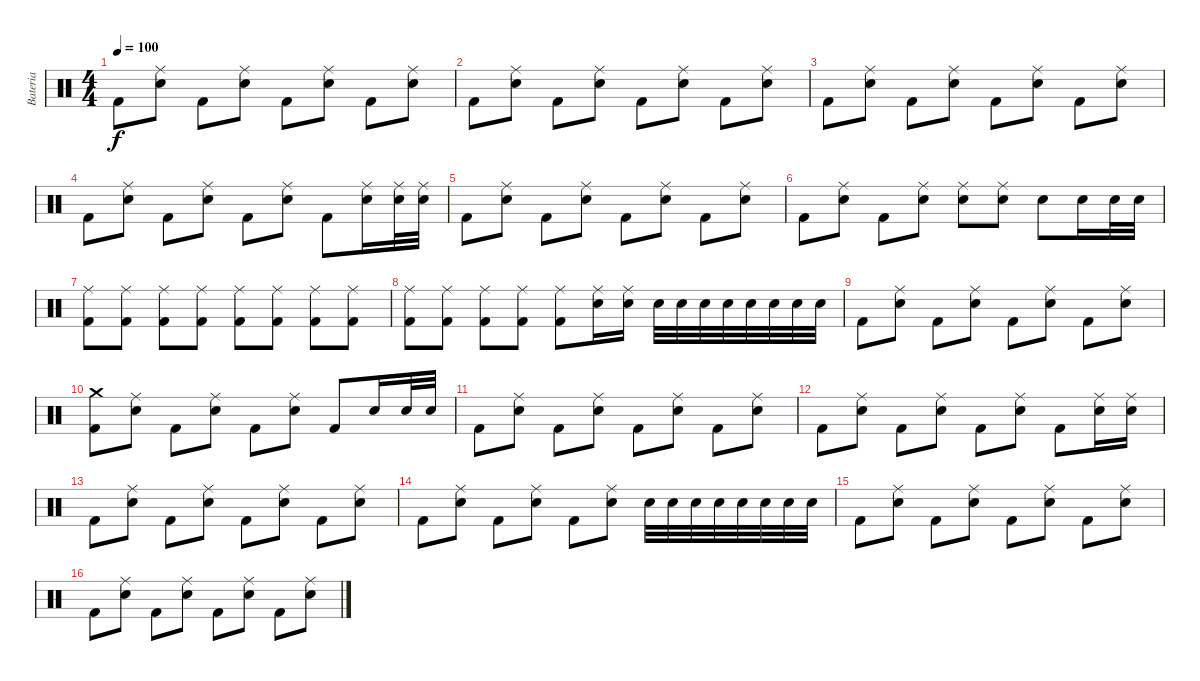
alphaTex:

\track ("Bateria" "Bateria") {instrument percussion}
\staff {score}
\articulation defaults
\ts (4 4)
\tempo 100
\clef neutral
\ks c "Kick (hit) 2".8{dy f}
("Ride (middle)" "Snare (hit) 2").8 "Kick (hit) 2".8 ("Ride (middle)" "Snare (hit) 2").8 "Kick (hit) 2".8 ("Ride (middle)" "Snare (hit) 2").8 "Kick (hit) 2".8 ("Ride (middle)" "Snare (hit) 2").8 |
"Kick (hit) 2".8 ("Ride (middle)" "Snare (hit) 2").8 "Kick (hit) 2".8 ("Ride (middle)" "Snare (hit) 2").8 "Kick (hit) 2".8 ("Ride (middle)" "Snare (hit) 2").8 "Kick (hit) 2".8 ("Ride (middle)" "Snare (hit) 2").8 |
"Kick (hit) 2".8 ("Ride (middle)" "Snare (hit) 2").8 "Kick (hit) 2".8 ("Ride (middle)" "Snare (hit) 2").8 "Kick (hit) 2".8 ("Ride (middle)" "Snare (hit) 2").8 "Kick (hit) 2".8 ("Ride (middle)" "Snare (hit) 2").8 |
"Kick (hit) 2".8 ("Ride (middle)" "Snare (hit) 2").8 "Kick (hit) 2".8 ("Ride (middle)" "Snare (hit) 2").8 "Kick (hit) 2".8 ("Ride (middle)" "Snare (hit) 2").8 "Kick (hit) 2".8 ("Ride (middle)" "Snare (hit) 2").16 ("Ride (middle)" "Snare (hit) 2").32 ("Ride (middle)" "Snare (hit) 2").32 |
"Kick (hit) 2".8 ("Ride (middle)" "Snare (hit) 2").8 "Kick (hit) 2".8 ("Ride (middle)" "Snare (hit) 2").8 "Kick (hit) 2".8 ("Ride (middle)" "Snare (hit) 2").8 "Kick (hit) 2".8 ("Ride (middle)" "Snare (hit) 2").8 |
"Kick (hit) 2".8 ("Ride (middle)" "Snare (hit) 2").8 "Kick (hit) 2".8 ("Ride (middle)" "Snare (hit) 2").8 ("Ride (middle)" "Snare (hit) 2").8 ("Ride (middle)" "Snare (hit) 2").8 "Snare (hit) 2".8 "Snare (hit) 2".16 "Snare (hit) 2".32 "Snare (hit) 2".32 |
("Kick (hit) 2" "Ride (middle)").8 ("Kick (hit) 2" "Ride (middle)").8 ("Kick (hit) 2" "Ride (middle)").8 ("Kick (hit) 2" "Ride (middle)").8 ("Kick (hit) 2" "Ride (middle)").8 ("Kick (hit) 2" "Ride (middle)").8 ("Kick (hit) 2" "Ride (middle)").8 ("Kick (hit) 2" "Ride (middle)").8 |
("Ride (middle)" "Kick (hit) 2").8 ("Ride (middle)" "Kick (hit) 2").8 ("Ride (middle)" "Kick (hit) 2").8 ("Ride (middle)" "Kick (hit) 2").8 ("Kick (hit) 2" "Ride (middle)").8 ("Ride (middle)" "Snare (hit) 2").16 ("Ride (middle)" "Snare (hit) 2").16 "Snare (hit) 2".32 "Snare (hit) 2".32 "Snare (hit) 2".32 "Snare (hit) 2".32 "Snare (hit) 2".32 "Snare (hit) 2".32 "Snare (hit) 2".32 "Snare (hit) 2".32 |
"Kick (hit) 2".8 ("Ride (middle)" "Snare (hit) 2").8 "Kick (hit) 2".8 ("Ride (middle)" "Snare (hit) 2").8 "Kick (hit) 2".8 ("Ride (middle)" "Snare (hit) 2").8 "Kick (hit) 2".8 ("Ride (middle)" "Snare (hit) 2").8 |
("Crash medium (hit)" "Kick (hit) 2").8 ("Ride (middle)" "Snare (hit) 2").8 "Kick (hit) 2".8 ("Ride (middle)" "Snare (hit) 2").8 "Kick (hit) 2".8 ("Ride (middle)" "Snare (hit) 2").8 "Kick (hit) 2".8 "Snare (hit) 2".16 "Snare (hit) 2".32 "Snare (hit) 2".32 |
"Kick (hit) 2".8 ("Ride (middle)" "Snare (hit) 2").8 "Kick (hit) 2".8 ("Ride (middle)" "Snare (hit) 2").8 "Kick (hit) 2".8 ("Ride (middle)" "Snare (hit) 2").8 "Kick (hit) 2".8 ("Ride (middle)" "Snare (hit) 2").8 |
"Kick (hit) 2".8 ("Ride (middle)" "Snare (hit) 2").8 "Kick (hit) 2".8 ("Ride (middle)" "Snare (hit) 2").8 "Kick (hit) 2".8 ("Ride (middle)" "Snare (hit) 2").8 "Kick (hit) 2".8 ("Ride (middle)" "Snare (hit) 2").16 ("Ride (middle)" "Snare (hit) 2").16 |
"Kick (hit) 2".8 ("Ride (middle)" "Snare (hit) 2").8 "Kick (hit) 2".8 ("Ride (middle)" "Snare (hit) 2").8 "Kick (hit) 2".8 ("Ride (middle)" "Snare (hit) 2").8 "Kick (hit) 2".8 ("Ride (middle)" "Snare (hit) 2").8 |
"Kick (hit) 2".8 ("Ride (middle)" "Snare (hit) 2").8 "Kick (hit) 2".8 ("Ride (middle)" "Snare (hit) 2").8 "Kick (hit) 2".8 ("Ride (middle)" "Snare (hit) 2").8 "Snare (hit) 2".32 "Snare (hit) 2".32 "Snare (hit) 2".32 "Snare (hit) 2".32 "Snare (hit) 2".32 "Snare (hit) 2".32 "Snare (hit) 2".32 "Snare (hit) 2".32 |
"Kick (hit) 2".8 ("Ride (middle)" "Snare (hit) 2").8 "Kick (hit) 2".8 ("Ride (middle)" "Snare (hit) 2").8 "Kick (hit) 2".8 ("Ride (middle)" "Snare (hit) 2").8 "Kick (hit) 2".8 ("Ride (middle)" "Snare (hit) 2").8 |
"Kick (hit) 2".8 ("Ride (middle)" "Snare (hit) 2").8 "Kick (hit) 2".8 ("Ride (middle)" "Snare (hit) 2").8 "Kick (hit) 2".8 ("Ride (middle)" "Snare (hit) 2").8 "Kick (hit) 2".8 ("Ride (middle)" "Snare (hit) 2").8
